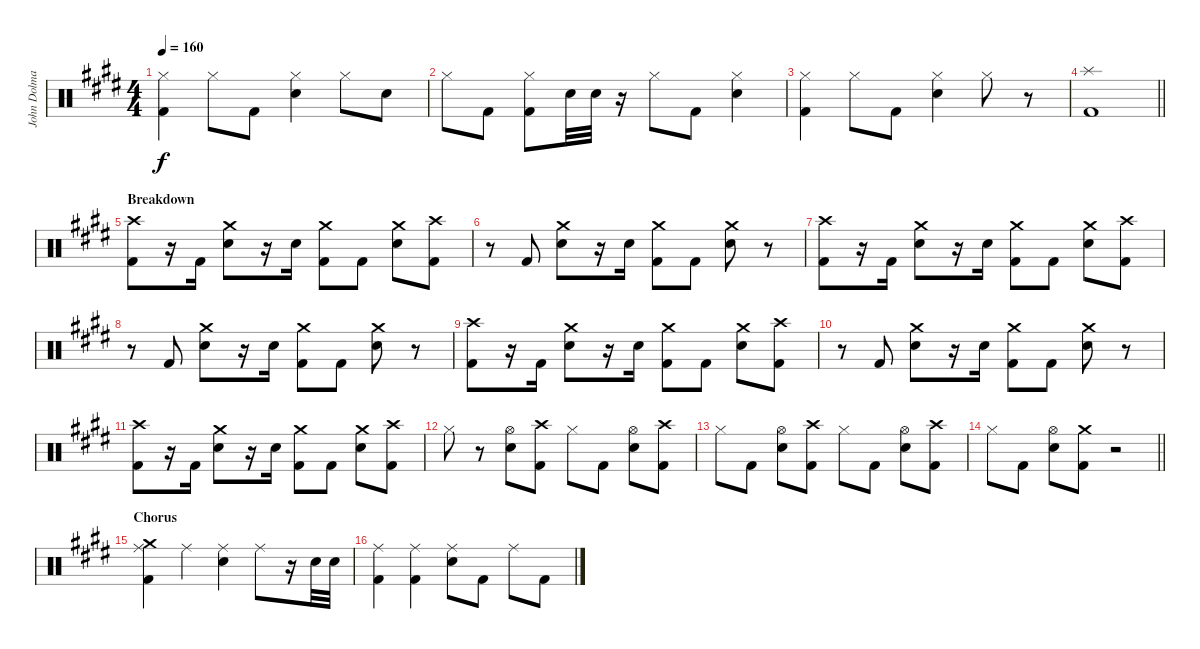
\track ("John Dolmayan [Drums]" "John Dolma") {instrument percussion}
\staff {score}
\articulation defaults
\ts (4 4)
\tempo 160
\clef neutral
\ks c#minor
("Hi-Hat (closed)" "Kick (hit) 2").4{dy f} "Hi-Hat (closed)".8 "Kick (hit) 2".8 ("Hi-Hat (closed)" "Electric Snare (hit)").4 "Hi-Hat (closed)".8 "Electric Snare (hit)".8 |
"Hi-Hat (closed)".8 "Kick (hit) 2".8 ("Hi-Hat (closed)" "Kick (hit) 2").8 "Snare (hit) 2".32 "Snare (hit) 2".32 r.16 "Hi-Hat (closed)".8 "Kick (hit) 2".8 ("Hi-Hat (closed)" "Electric Snare (hit)").4 |
("Hi-Hat (closed)" "Kick (hit) 2").4 "Hi-Hat (closed)".8 "Kick (hit) 2".8 ("Hi-Hat (closed)" "Electric Snare (hit)").4 "Hi-Hat (closed)".8 r.8 |
\barLineRight lightlight
("Splash (hit)" "Kick (hit) 2").1 |
\section ("" "Breakdown")
("Crash high (hit)" "Kick (hit) 2").8 r.16 "Kick (hit) 2".16 ("Crash medium (hit)" "Electric Snare (hit)").8 r.16 "Electric Snare (hit)".16 ("Crash medium (hit)" "Kick (hit) 2").8 "Kick (hit) 2".8 ("Crash medium (hit)" "Electric Snare (hit)").8 ("Crash high (hit)" "Kick (hit) 2").8 |
r.8 "Kick (hit) 2".8 ("Crash medium (hit)" "Electric Snare (hit)").8 r.16 "Electric Snare (hit)".16 ("Crash medium (hit)" "Kick (hit) 2").8 "Kick (hit) 2".8 ("Crash medium (hit)" "Electric Snare (hit)").8 r.8 |
("Crash high (hit)" "Kick (hit) 2").8 r.16 "Kick (hit) 2".16 ("Crash medium (hit)" "Electric Snare (hit)").8 r.16 "Electric Snare (hit)".16 ("Crash medium (hit)" "Kick (hit) 2").8 "Kick (hit) 2".8 ("Crash medium (hit)" "Electric Snare (hit)").8 ("Crash high (hit)" "Kick (hit) 2").8 |
r.8 "Kick (hit) 2".8 ("Crash medium (hit)" "Electric Snare (hit)").8 r.16 "Electric Snare (hit)".16 ("Crash medium (hit)" "Kick (hit) 2").8 "Kick (hit) 2".8 ("Crash medium (hit)" "Electric Snare (hit)").8 r.8 |
("Crash high (hit)" "Kick (hit) 2").8 r.16 "Kick (hit) 2".16 ("Crash medium (hit)" "Electric Snare (hit)").8 r.16 "Electric Snare (hit)".16 ("Crash medium (hit)" "Kick (hit) 2").8 "Kick (hit) 2".8 ("Crash medium (hit)" "Electric Snare (hit)").8 ("Crash high (hit)" "Kick (hit) 2").8 |
r.8 "Kick (hit) 2".8 ("Crash medium (hit)" "Electric Snare (hit)").8 r.16 "Electric Snare (hit)".16 ("Crash medium (hit)" "Kick (hit) 2").8 "Kick (hit) 2".8 ("Crash medium (hit)" "Electric Snare (hit)").8 r.8 |
("Crash high (hit)" "Kick (hit) 2").8 r.16 "Kick (hit) 2".16 ("Crash medium (hit)" "Electric Snare (hit)").8 r.16 "Electric Snare (hit)".16 ("Crash medium (hit)" "Kick (hit) 2").8 "Kick (hit) 2".8 ("Crash medium (hit)" "Electric Snare (hit)").8 ("Crash high (hit)" "Kick (hit) 2").8 |
"Hi-Hat (closed)".8 r.8 ("Hi-Hat (open)" "Electric Snare (hit)").8 ("Crash high (hit)" "Kick (hit) 2").8 "Hi-Hat (closed)".8 "Kick (hit) 2".8 ("Hi-Hat (open)" "Electric Snare (hit)").8 ("Crash high (hit)" "Kick (hit) 2").8 |
"Hi-Hat (closed)".8 "Kick (hit) 2".8 ("Hi-Hat (open)" "Electric Snare (hit)").8 ("Crash high (hit)" "Kick (hit) 2").8 "Hi-Hat (closed)".8 "Kick (hit) 2".8 ("Hi-Hat (open)" "Electric Snare (hit)").8 ("Crash high (hit)" "Kick (hit) 2").8 |
\barLineRight lightlight "Hi-Hat (closed)".8 "Kick (hit) 2".8
("Hi-Hat (open)" "Electric Snare (hit)").8 ("Crash medium (hit)" "Kick (hit) 2").8 r.2 |
\section ("" "Chorus")
("Crash medium (hit)" "Ride (middle)" "Kick (hit) 2").4 "Ride (middle)".4 ("Ride (middle)" "Electric Snare (hit)").4 "Ride (middle)".8 r.16 "Electric Snare (hit)".32 "Electric Snare (hit)".32 |
("Ride (middle)" "Kick (hit) 2").4 ("Ride (middle)" "Kick (hit) 2").4 ("Ride (middle)" "Electric Snare (hit)").8 "Kick (hit) 2".8 "Ride (middle)".8 "Kick (hit) 2".8
